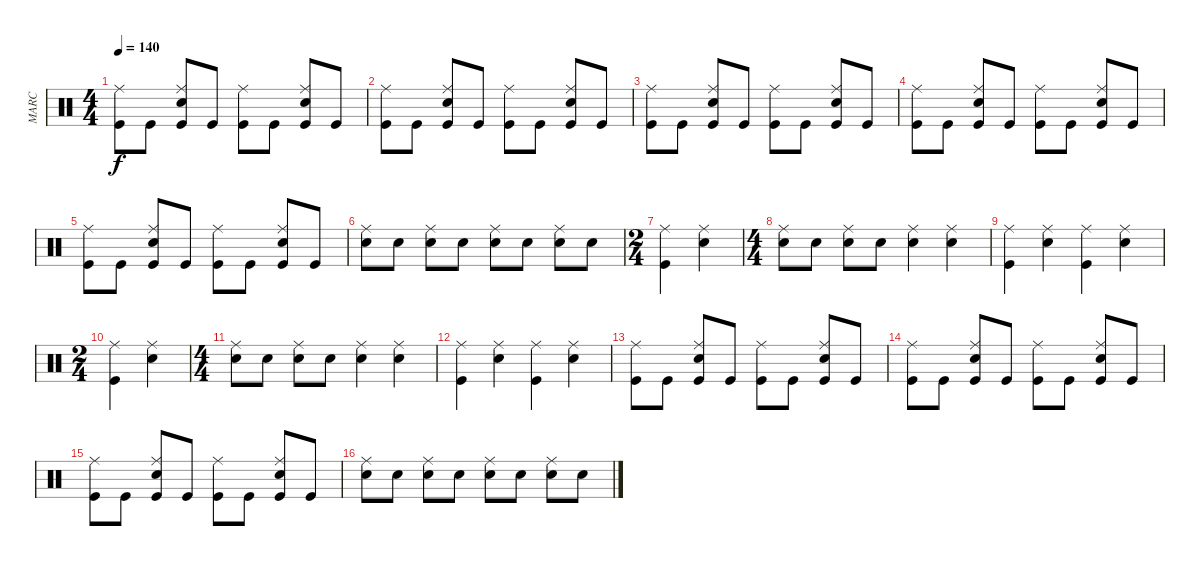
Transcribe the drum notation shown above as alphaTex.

\track ("MARC" "MARC") {instrument percussion}
\staff {score}
\articulation defaults
\ts (4 4)
\tempo 140
\clef neutral
\ks c
("Kick (hit)" "Ride (middle)").8{dy f} "Kick (hit)".8 ("Kick (hit)" "Snare (hit) 2" "Ride (middle)").8 "Kick (hit)".8 ("Kick (hit)" "Ride (middle)").8 "Kick (hit)".8 ("Kick (hit)" "Snare (hit) 2" "Ride (middle)").8 "Kick (hit)".8 |
("Kick (hit)" "Ride (middle)").8 "Kick (hit)".8 ("Kick (hit)" "Snare (hit) 2" "Ride (middle)").8 "Kick (hit)".8 ("Kick (hit)" "Ride (middle)").8 "Kick (hit)".8 ("Kick (hit)" "Snare (hit) 2" "Ride (middle)").8 "Kick (hit)".8 |
("Kick (hit)" "Ride (middle)").8 "Kick (hit)".8 ("Kick (hit)" "Snare (hit) 2" "Ride (middle)").8 "Kick (hit)".8 ("Kick (hit)" "Ride (middle)").8 "Kick (hit)".8 ("Kick (hit)" "Snare (hit) 2" "Ride (middle)").8 "Kick (hit)".8 |
("Kick (hit)" "Ride (middle)").8 "Kick (hit)".8 ("Kick (hit)" "Snare (hit) 2" "Ride (middle)").8 "Kick (hit)".8 ("Kick (hit)" "Ride (middle)").8 "Kick (hit)".8 ("Kick (hit)" "Snare (hit) 2" "Ride (middle)").8 "Kick (hit)".8 |
("Kick (hit)" "Ride (middle)").8 "Kick (hit)".8 ("Kick (hit)" "Snare (hit) 2" "Ride (middle)").8 "Kick (hit)".8 ("Kick (hit)" "Ride (middle)").8 "Kick (hit)".8 ("Kick (hit)" "Snare (hit) 2" "Ride (middle)").8 "Kick (hit)".8 |
("Snare (hit) 2" "Ride (middle)").8 "Snare (hit) 2".8 ("Snare (hit) 2" "Ride (middle)").8 "Snare (hit) 2".8 ("Snare (hit) 2" "Ride (middle)").8 "Snare (hit) 2".8 ("Snare (hit) 2" "Ride (middle)").8 "Snare (hit) 2".8 |
\ts (2 4)
("Kick (hit)" "Ride (middle)").4 ("Snare (hit) 2" "Ride (middle)").4 |
\ts (4 4)
("Snare (hit) 2" "Ride (middle)").8 "Snare (hit) 2".8 ("Snare (hit) 2" "Ride (middle)").8 "Snare (hit) 2".8 ("Snare (hit) 2" "Ride (middle)").4 ("Snare (hit) 2" "Ride (middle)").4 |
("Kick (hit)" "Ride (middle)").4 ("Snare (hit) 2" "Ride (middle)").4 ("Kick (hit)" "Ride (middle)").4 ("Snare (hit) 2" "Ride (middle)").4 |
\ts (2 4)
("Kick (hit)" "Ride (middle)").4 ("Snare (hit) 2" "Ride (middle)").4 |
\ts (4 4)
("Snare (hit) 2" "Ride (middle)").8 "Snare (hit) 2".8 ("Snare (hit) 2" "Ride (middle)").8 "Snare (hit) 2".8 ("Snare (hit) 2" "Ride (middle)").4 ("Snare (hit) 2" "Ride (middle)").4 |
("Kick (hit)" "Ride (middle)").4 ("Snare (hit) 2" "Ride (middle)").4 ("Kick (hit)" "Ride (middle)").4 ("Snare (hit) 2" "Ride (middle)").4 |
("Kick (hit)" "Ride (middle)").8 "Kick (hit)".8 ("Kick (hit)" "Snare (hit) 2" "Ride (middle)").8 "Kick (hit)".8 ("Kick (hit)" "Ride (middle)").8 "Kick (hit)".8 ("Kick (hit)" "Snare (hit) 2" "Ride (middle)").8 "Kick (hit)".8 |
("Kick (hit)" "Ride (middle)").8 "Kick (hit)".8 ("Kick (hit)" "Snare (hit) 2" "Ride (middle)").8 "Kick (hit)".8 ("Kick (hit)" "Ride (middle)").8 "Kick (hit)".8 ("Kick (hit)" "Snare (hit) 2" "Ride (middle)").8 "Kick (hit)".8 |
("Kick (hit)" "Ride (middle)").8 "Kick (hit)".8 ("Kick (hit)" "Snare (hit) 2" "Ride (middle)").8 "Kick (hit)".8 ("Kick (hit)" "Ride (middle)").8 "Kick (hit)".8 ("Kick (hit)" "Snare (hit) 2" "Ride (middle)").8 "Kick (hit)".8 |
("Snare (hit) 2" "Ride (middle)").8 "Snare (hit) 2".8 ("Snare (hit) 2" "Ride (middle)").8 "Snare (hit) 2".8 ("Snare (hit) 2" "Ride (middle)").8 "Snare (hit) 2".8 ("Snare (hit) 2" "Ride (middle)").8 "Snare (hit) 2".8
